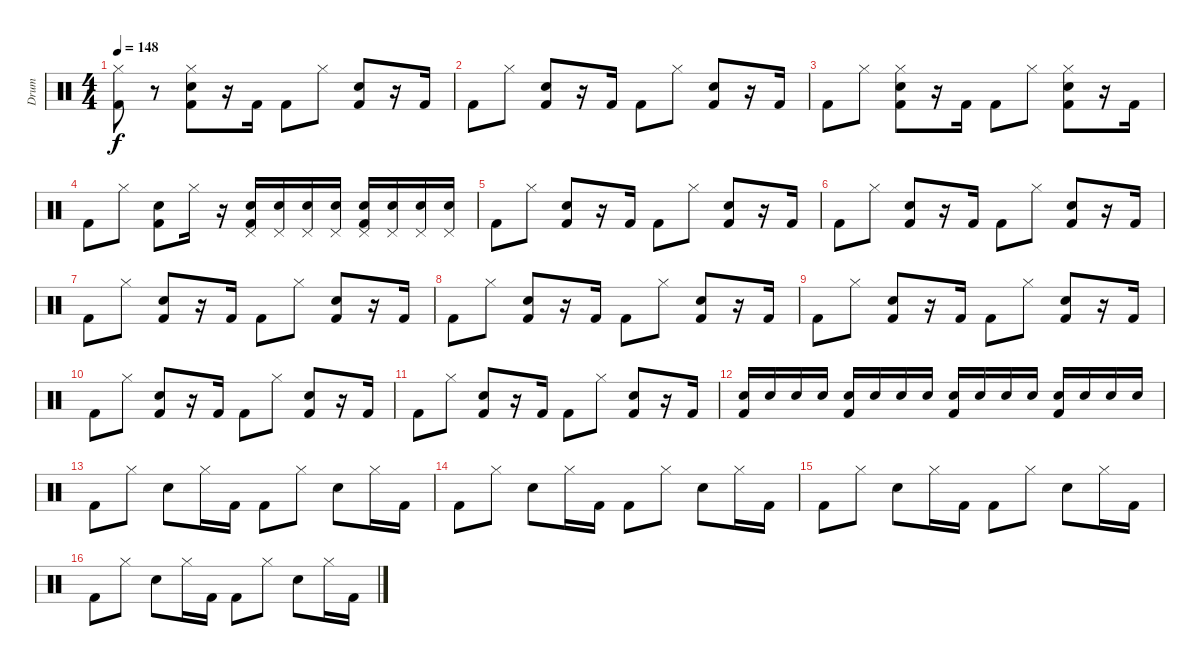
\track ("Drum" "Drum") {instrument percussion}
\staff {score}
\articulation defaults
\ts (4 4)
\tempo 148
\clef neutral
\ks c
("Hi-Hat (closed)" "Kick (hit) 2").8{dy f} r.8 ("Hi-Hat (closed)" "Electric Snare (hit)" "Kick (hit) 2").8 r.16 "Kick (hit) 2".16 "Kick (hit) 2".8 "Hi-Hat (closed)".8 ("Electric Snare (hit)" "Kick (hit) 2").8 r.16 "Kick (hit) 2".16 |
"Kick (hit) 2".8 "Hi-Hat (closed)".8 ("Electric Snare (hit)" "Kick (hit) 2").8 r.16 "Kick (hit) 2".16 "Kick (hit) 2".8 "Hi-Hat (closed)".8 ("Electric Snare (hit)" "Kick (hit) 2").8 r.16 "Kick (hit) 2".16 |
"Kick (hit) 2".8 "Hi-Hat (closed)".8 ("Hi-Hat (closed)" "Electric Snare (hit)" "Kick (hit) 2").8 r.16 "Kick (hit) 2".16 "Kick (hit) 2".8 "Hi-Hat (closed)".8 ("Hi-Hat (closed)" "Electric Snare (hit)" "Kick (hit) 2").8 r.16 "Kick (hit) 2".16 |
"Kick (hit) 2".8 "Hi-Hat (closed)".8 ("Electric Snare (hit)" "Kick (hit) 2").8 "Hi-Hat (closed)".16 r.16 ("Pedal Hi-Hat (hit)" "Electric Snare (hit)" "Kick (hit) 2").16 ("Pedal Hi-Hat (hit)" "Electric Snare (hit)").16 ("Pedal Hi-Hat (hit)" "Electric Snare (hit)").16 ("Pedal Hi-Hat (hit)" "Electric Snare (hit)").16 ("Pedal Hi-Hat (hit)" "Electric Snare (hit)" "Kick (hit) 2").16 ("Pedal Hi-Hat (hit)" "Electric Snare (hit)").16 ("Pedal Hi-Hat (hit)" "Electric Snare (hit)").16 ("Pedal Hi-Hat (hit)" "Electric Snare (hit)").16 |
"Kick (hit) 2".8 "Hi-Hat (closed)".8 ("Electric Snare (hit)" "Kick (hit) 2").8 r.16 "Kick (hit) 2".16 "Kick (hit) 2".8 "Hi-Hat (closed)".8 ("Electric Snare (hit)" "Kick (hit) 2").8 r.16 "Kick (hit) 2".16 |
"Kick (hit) 2".8 "Hi-Hat (closed)".8 ("Electric Snare (hit)" "Kick (hit) 2").8 r.16 "Kick (hit) 2".16 "Kick (hit) 2".8 "Hi-Hat (closed)".8 ("Electric Snare (hit)" "Kick (hit) 2").8 r.16 "Kick (hit) 2".16 |
"Kick (hit) 2".8 "Hi-Hat (closed)".8 ("Electric Snare (hit)" "Kick (hit) 2").8 r.16 "Kick (hit) 2".16 "Kick (hit) 2".8 "Hi-Hat (closed)".8 ("Electric Snare (hit)" "Kick (hit) 2").8 r.16 "Kick (hit) 2".16 |
"Kick (hit) 2".8 "Hi-Hat (closed)".8 ("Electric Snare (hit)" "Kick (hit) 2").8 r.16 "Kick (hit) 2".16 "Kick (hit) 2".8 "Hi-Hat (closed)".8 ("Electric Snare (hit)" "Kick (hit) 2").8 r.16 "Kick (hit) 2".16 |
"Kick (hit) 2".8 "Hi-Hat (closed)".8 ("Electric Snare (hit)" "Kick (hit) 2").8 r.16 "Kick (hit) 2".16 "Kick (hit) 2".8 "Hi-Hat (closed)".8 ("Electric Snare (hit)" "Kick (hit) 2").8 r.16 "Kick (hit) 2".16 |
"Kick (hit) 2".8 "Hi-Hat (closed)".8 ("Electric Snare (hit)" "Kick (hit) 2").8 r.16 "Kick (hit) 2".16 "Kick (hit) 2".8 "Hi-Hat (closed)".8 ("Electric Snare (hit)" "Kick (hit) 2").8 r.16 "Kick (hit) 2".16 |
"Kick (hit) 2".8 "Hi-Hat (closed)".8 ("Electric Snare (hit)" "Kick (hit) 2").8 r.16 "Kick (hit) 2".16 "Kick (hit) 2".8 "Hi-Hat (closed)".8 ("Electric Snare (hit)" "Kick (hit) 2").8 r.16 "Kick (hit) 2".16 |
("Electric Snare (hit)" "Kick (hit) 2").16 "Electric Snare (hit)".16 "Electric Snare (hit)".16 "Electric Snare (hit)".16 ("Electric Snare (hit)" "Kick (hit) 2").16 "Electric Snare (hit)".16 "Electric Snare (hit)".16 "Electric Snare (hit)".16 ("Electric Snare (hit)" "Kick (hit) 2").16 "Electric Snare (hit)".16 "Electric Snare (hit)".16 "Electric Snare (hit)".16 ("Electric Snare (hit)" "Kick (hit) 2").16 "Electric Snare (hit)".16 "Electric Snare (hit)".16 "Electric Snare (hit)".16 |
"Kick (hit) 2".8 "Hi-Hat (closed)".8 "Electric Snare (hit)".8 "Hi-Hat (closed)".16 "Kick (hit) 2".16 "Kick (hit) 2".8 "Hi-Hat (closed)".8 "Electric Snare (hit)".8 "Hi-Hat (closed)".16 "Kick (hit) 2".16 |
"Kick (hit) 2".8 "Hi-Hat (closed)".8 "Electric Snare (hit)".8 "Hi-Hat (closed)".16 "Kick (hit) 2".16 "Kick (hit) 2".8 "Hi-Hat (closed)".8 "Electric Snare (hit)".8 "Hi-Hat (closed)".16 "Kick (hit) 2".16 |
"Kick (hit) 2".8 "Hi-Hat (closed)".8 "Electric Snare (hit)".8 "Hi-Hat (closed)".16 "Kick (hit) 2".16 "Kick (hit) 2".8 "Hi-Hat (closed)".8 "Electric Snare (hit)".8 "Hi-Hat (closed)".16 "Kick (hit) 2".16 |
"Kick (hit) 2".8 "Hi-Hat (closed)".8 "Electric Snare (hit)".8 "Hi-Hat (closed)".16 "Kick (hit) 2".16 "Kick (hit) 2".8 "Hi-Hat (closed)".8 "Electric Snare (hit)".8 "Hi-Hat (closed)".16 "Kick (hit) 2".16
